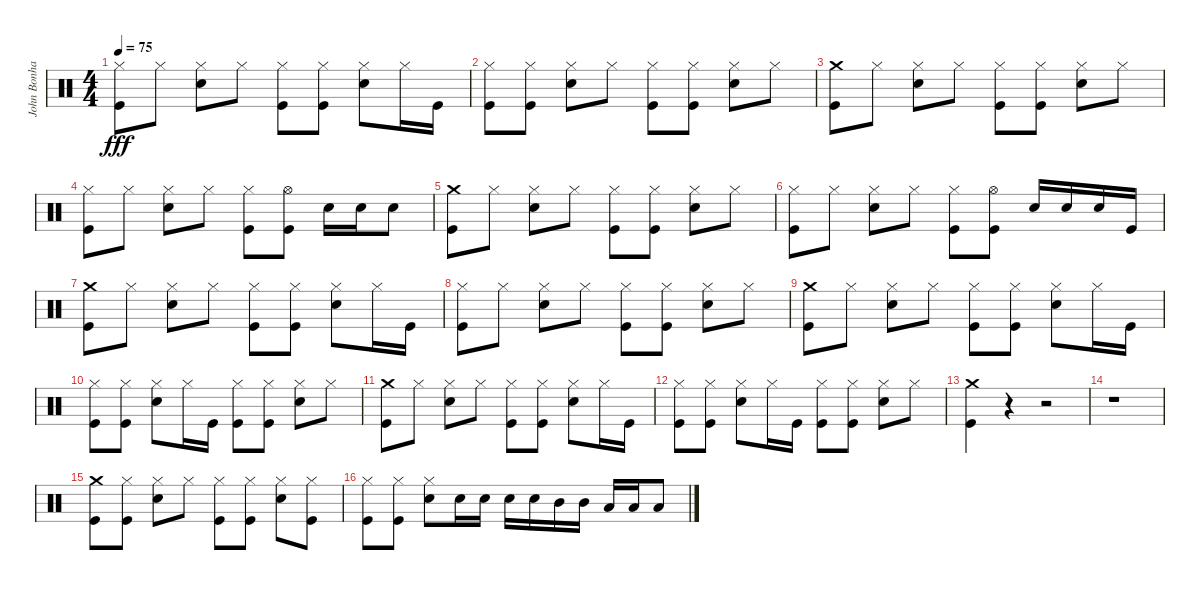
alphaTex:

\track ("John Bonham (Bateria)" "John Bonha") {instrument percussion}
\staff {score}
\articulation defaults
\ts (4 4)
\tempo 75
\clef neutral
\ks c
("Hi-Hat (closed)" "Kick (hit)").8{dy fff} "Hi-Hat (closed)".8 ("Hi-Hat (closed)" "Snare (hit) 2").8 "Hi-Hat (closed)".8 ("Hi-Hat (closed)" "Kick (hit)").8 ("Hi-Hat (closed)" "Kick (hit)").8 ("Hi-Hat (closed)" "Snare (hit) 2").8 "Hi-Hat (closed)".16 "Kick (hit)".16 |
("Hi-Hat (closed)" "Kick (hit)").8 ("Hi-Hat (closed)" "Kick (hit)").8 ("Hi-Hat (closed)" "Snare (hit) 2").8 "Hi-Hat (closed)".8 ("Hi-Hat (closed)" "Kick (hit)").8 ("Hi-Hat (closed)" "Kick (hit)").8 ("Hi-Hat (closed)" "Snare (hit) 2").8 "Hi-Hat (closed)".8 |
("Crash medium (hit)" "Kick (hit)").8 "Hi-Hat (closed)".8 ("Hi-Hat (closed)" "Snare (hit) 2").8 "Hi-Hat (closed)".8 ("Hi-Hat (closed)" "Kick (hit)").8 ("Hi-Hat (closed)" "Kick (hit)").8 ("Hi-Hat (closed)" "Snare (hit) 2").8 "Hi-Hat (closed)".8 |
("Hi-Hat (closed)" "Kick (hit)").8 "Hi-Hat (closed)".8 ("Hi-Hat (closed)" "Snare (hit) 2").8 "Hi-Hat (closed)".8 ("Hi-Hat (closed)" "Kick (hit)").8 ("Hi-Hat (open)" "Kick (hit)").8 "Snare (hit) 2".16 "Snare (hit) 2".16 "Snare (hit) 2".8 |
("Crash medium (hit)" "Kick (hit)").8 "Hi-Hat (closed)".8 ("Hi-Hat (closed)" "Snare (hit) 2").8 "Hi-Hat (closed)".8 ("Hi-Hat (closed)" "Kick (hit)").8 ("Hi-Hat (closed)" "Kick (hit)").8 ("Hi-Hat (closed)" "Snare (hit) 2").8 "Hi-Hat (closed)".8 |
("Hi-Hat (closed)" "Kick (hit)").8 "Hi-Hat (closed)".8 ("Hi-Hat (closed)" "Snare (hit) 2").8 "Hi-Hat (closed)".8 ("Hi-Hat (closed)" "Kick (hit)").8 ("Hi-Hat (open)" "Kick (hit)").8 "Snare (hit) 2".16 "Snare (hit) 2".16 "Snare (hit) 2".16 "Kick (hit)".16 |
("Crash medium (hit)" "Kick (hit)").8 "Hi-Hat (closed)".8 ("Hi-Hat (closed)" "Snare (hit) 2").8 "Hi-Hat (closed)".8 ("Hi-Hat (closed)" "Kick (hit)").8 ("Hi-Hat (closed)" "Kick (hit)").8 ("Hi-Hat (closed)" "Snare (hit) 2").8 "Hi-Hat (closed)".16 "Kick (hit)".16 |
("Hi-Hat (closed)" "Kick (hit)").8 "Hi-Hat (closed)".8 ("Hi-Hat (closed)" "Snare (hit) 2").8 "Hi-Hat (closed)".8 ("Hi-Hat (closed)" "Kick (hit)").8 ("Hi-Hat (closed)" "Kick (hit)").8 ("Hi-Hat (closed)" "Snare (hit) 2").8 "Hi-Hat (closed)".8 |
("Crash medium (hit)" "Kick (hit)").8 "Hi-Hat (closed)".8 ("Hi-Hat (closed)" "Snare (hit) 2").8 "Hi-Hat (closed)".8 ("Hi-Hat (closed)" "Kick (hit)").8 ("Hi-Hat (closed)" "Kick (hit)").8 ("Hi-Hat (closed)" "Snare (hit) 2").8 "Hi-Hat (closed)".16 "Kick (hit)".16 |
("Hi-Hat (closed)" "Kick (hit)").8 ("Hi-Hat (closed)" "Kick (hit)").8 ("Hi-Hat (closed)" "Snare (hit) 2").8 "Hi-Hat (closed)".16 "Kick (hit)".16 ("Hi-Hat (closed)" "Kick (hit)").8 ("Hi-Hat (closed)" "Kick (hit)").8 ("Hi-Hat (closed)" "Snare (hit) 2").8 "Hi-Hat (closed)".8 |
("Crash medium (hit)" "Kick (hit)").8 "Hi-Hat (closed)".8 ("Hi-Hat (closed)" "Snare (hit) 2").8 "Hi-Hat (closed)".8 ("Hi-Hat (closed)" "Kick (hit)").8 ("Hi-Hat (closed)" "Kick (hit)").8 ("Hi-Hat (closed)" "Snare (hit) 2").8 "Hi-Hat (closed)".16 "Kick (hit)".16 |
("Hi-Hat (closed)" "Kick (hit)").8 ("Hi-Hat (closed)" "Kick (hit)").8 ("Hi-Hat (closed)" "Snare (hit) 2").8 "Hi-Hat (closed)".16 "Kick (hit)".16 ("Hi-Hat (closed)" "Kick (hit)").8 ("Hi-Hat (closed)" "Kick (hit)").8 ("Hi-Hat (closed)" "Snare (hit) 2").8 "Hi-Hat (closed)".8 |
("Crash medium (hit)" "Kick (hit)").4 r.4 r.2 |
r.1 |
("Crash medium (hit)" "Kick (hit)").8 ("Hi-Hat (closed)" "Kick (hit)").8 ("Hi-Hat (closed)" "Snare (hit) 2").8 "Hi-Hat (closed)".8 ("Hi-Hat (closed)" "Kick (hit)").8 ("Hi-Hat (closed)" "Kick (hit)").8 ("Hi-Hat (closed)" "Snare (hit) 2").8 ("Hi-Hat (closed)" "Kick (hit)").8 |
("Hi-Hat (closed)" "Kick (hit)").8 ("Hi-Hat (closed)" "Kick (hit)").8 ("Hi-Hat (closed)" "Snare (hit) 2").8 "Snare (hit) 2".16 "Snare (hit) 2".16 "Snare (hit) 2".16 "Snare (hit) 2".16 "Mid Tom (hit)".16 "Mid Tom (hit)".16 "Low Tom (hit)".16 "Low Tom (hit)".16 "Low Tom (hit)".8
